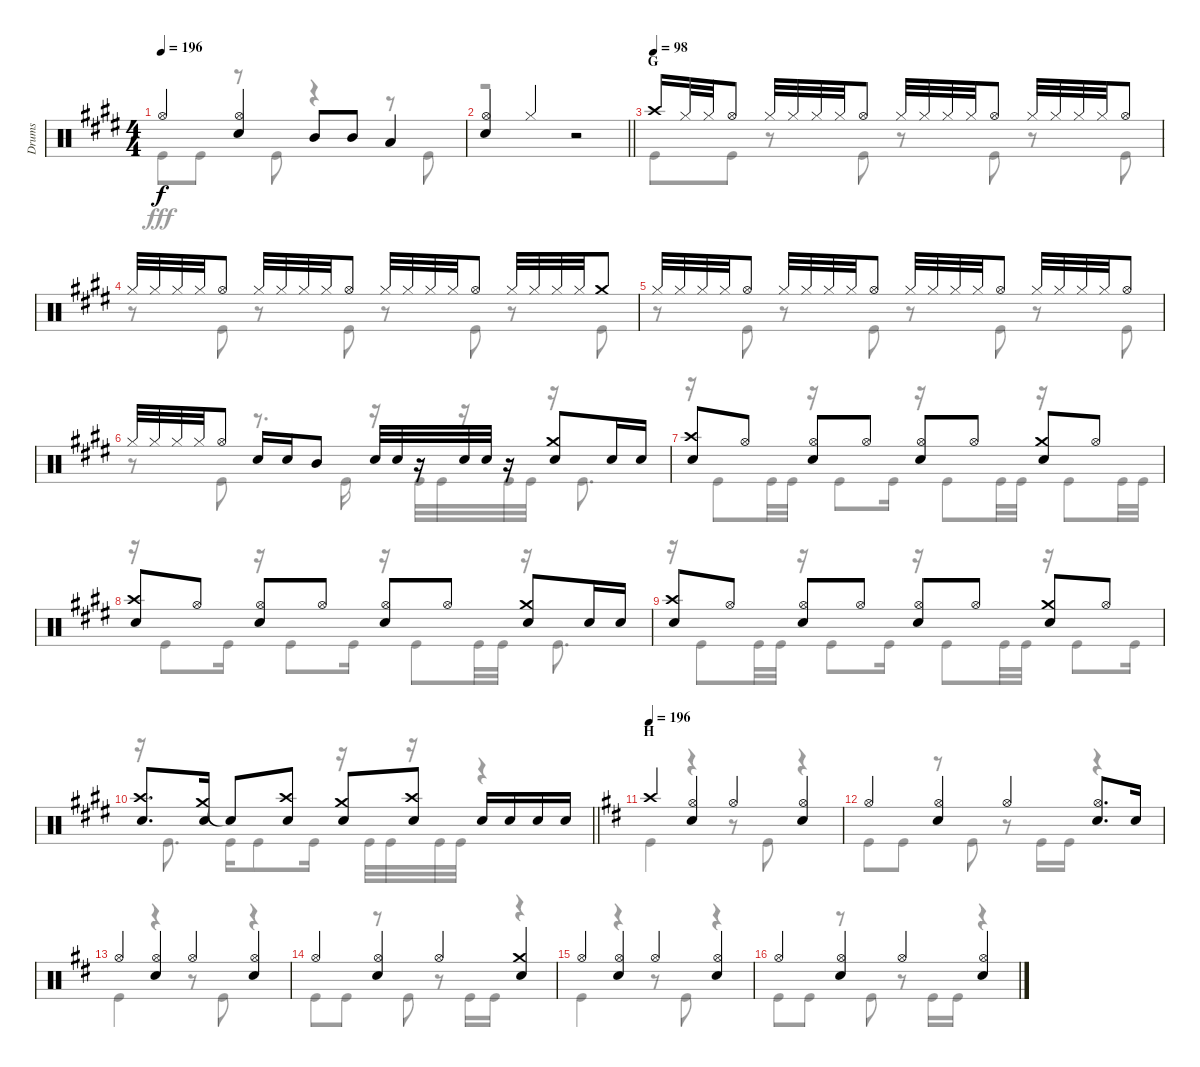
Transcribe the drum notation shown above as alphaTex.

\track ("Drums" "Drums") {instrument percussion}
\staff {score}
\articulation defaults
\voice
\ts (4 4)
\tempo 196
\clef neutral
\ks e "Hi-Hat (open)".4{dy f}
("Hi-Hat (open)" "Snare (hit) 2").4 "Mid Tom (hit)".8 "Mid Tom (hit)".8 "Low Tom (hit)".4 |
\barLineRight lightlight
("Hi-Hat (open)" "Snare (hit) 2").4 "Hi-Hat (closed)".4 r.2 |
\section ("" "G")
\tempo (98)
"Crash high (hit)".16 "Hi-Hat (closed)".32 "Hi-Hat (closed)".32 "Hi-Hat (open)".8 "Hi-Hat (closed)".32 "Hi-Hat (closed)".32 "Hi-Hat (closed)".32 "Hi-Hat (closed)".32 "Hi-Hat (open)".8 "Hi-Hat (closed)".32 "Hi-Hat (closed)".32 "Hi-Hat (closed)".32 "Hi-Hat (closed)".32 "Hi-Hat (open)".8 "Hi-Hat (closed)".32 "Hi-Hat (closed)".32 "Hi-Hat (closed)".32 "Hi-Hat (closed)".32 "Hi-Hat (open)".8 |
"Hi-Hat (closed)".32 "Hi-Hat (closed)".32 "Hi-Hat (closed)".32 "Hi-Hat (closed)".32 "Hi-Hat (open)".8 "Hi-Hat (closed)".32 "Hi-Hat (closed)".32 "Hi-Hat (closed)".32 "Hi-Hat (closed)".32 "Hi-Hat (open)".8 "Hi-Hat (closed)".32 "Hi-Hat (closed)".32 "Hi-Hat (closed)".32 "Hi-Hat (closed)".32 "Hi-Hat (open)".8 "Hi-Hat (closed)".32 "Hi-Hat (closed)".32 "Hi-Hat (closed)".32 "Hi-Hat (closed)".32 "Crash medium (hit)".8 |
"Hi-Hat (closed)".32 "Hi-Hat (closed)".32 "Hi-Hat (closed)".32 "Hi-Hat (closed)".32 "Hi-Hat (open)".8 "Hi-Hat (closed)".32 "Hi-Hat (closed)".32 "Hi-Hat (closed)".32 "Hi-Hat (closed)".32 "Hi-Hat (open)".8 "Hi-Hat (closed)".32 "Hi-Hat (closed)".32 "Hi-Hat (closed)".32 "Hi-Hat (closed)".32 "Hi-Hat (open)".8 "Hi-Hat (closed)".32 "Hi-Hat (closed)".32 "Hi-Hat (closed)".32 "Hi-Hat (closed)".32 "Hi-Hat (open)".8 |
"Hi-Hat (closed)".32 "Hi-Hat (closed)".32 "Hi-Hat (closed)".32 "Hi-Hat (closed)".32 "Hi-Hat (open)".8 "Snare (hit) 2".16 "Snare (hit) 2".16 "Mid Tom (hit)".8 "Snare (hit) 2".32 "Snare (hit) 2".32 r.16 "Snare (hit) 2".32 "Snare (hit) 2".32 r.16 ("Crash medium (hit)" "Snare (hit) 2").8 "Snare (hit) 2".16 "Snare (hit) 2".16 |
("Crash high (hit)" "Snare (hit) 2").8 "Hi-Hat (open)".8 ("Hi-Hat (open)" "Snare (hit) 2").8 "Hi-Hat (open)".8 ("Hi-Hat (open)" "Snare (hit) 2").8 "Hi-Hat (open)".8 ("Crash medium (hit)" "Snare (hit) 2").8 "Hi-Hat (open)".8 |
("Crash high (hit)" "Snare (hit) 2").8 "Hi-Hat (open)".8 ("Hi-Hat (open)" "Snare (hit) 2").8 "Hi-Hat (open)".8 ("Hi-Hat (open)" "Snare (hit) 2").8 "Hi-Hat (open)".8 ("Crash medium (hit)" "Snare (hit) 2").8 "Snare (hit) 2".16 "Snare (hit) 2".16 |
("Crash high (hit)" "Snare (hit) 2").8 "Hi-Hat (open)".8 ("Hi-Hat (open)" "Snare (hit) 2").8 "Hi-Hat (open)".8 ("Hi-Hat (open)" "Snare (hit) 2").8 "Hi-Hat (open)".8 ("Crash medium (hit)" "Snare (hit) 2").8 "Hi-Hat (open)".8 |
\barLineRight lightlight
("Crash high (hit)" "Snare (hit) 2").8{d} ("Crash medium (hit)" "Snare (hit) 2").16 "Snare (hit)"{t}.8 ("Crash high (hit)" "Snare (hit) 2").8 ("Crash medium (hit)" "Snare (hit) 2").8 ("Crash high (hit)" "Snare (hit) 2").8 "Snare (hit) 2".16 "Snare (hit) 2".16 "Snare (hit) 2".16 "Snare (hit) 2".16 |
\section ("" "H")
\tempo 196
\ks d "Crash high (hit)".4
("Hi-Hat (open)" "Snare (hit) 2").4 "Hi-Hat (open)".4 ("Hi-Hat (open)" "Snare (hit) 2").4 |
"Hi-Hat (open)".4 ("Hi-Hat (open)" "Snare (hit) 2").4 "Hi-Hat (open)".4 ("Hi-Hat (open)" "Snare (hit) 2").8{d} "Snare (hit) 2".16 |
"Hi-Hat (open)".4 ("Hi-Hat (open)" "Snare (hit) 2").4 "Hi-Hat (open)".4 ("Hi-Hat (open)" "Snare (hit) 2").4 |
"Hi-Hat (open)".4 ("Hi-Hat (open)" "Snare (hit) 2").4 "Hi-Hat (open)".4 ("Crash medium (hit)" "Snare (hit) 2").4 |
"Hi-Hat (open)".4 ("Hi-Hat (open)" "Snare (hit) 2").4 "Hi-Hat (open)".4 ("Hi-Hat (open)" "Snare (hit) 2").4 |
"Hi-Hat (open)".4 ("Hi-Hat (open)" "Snare (hit) 2").4 "Hi-Hat (open)".4 ("Hi-Hat (open)" "Snare (hit) 2").4
\voice
\clef neutral
\ottava regular
\simile none
\ks e "Kick (hit)".8{dy fff} "Kick (hit)".8
r.8 "Kick (hit)".8 r.4 r.8 "Kick (hit)".8 |
\barLineRight lightlight
r.1 |
"Kick (hit)".8 "Kick (hit)".8 r.8 "Kick (hit)".8 r.8 "Kick (hit)".8 r.8 "Kick (hit)".8 |
r.8 "Kick (hit)".8 r.8 "Kick (hit)".8 r.8 "Kick (hit)".8 r.8 "Kick (hit)".8 |
r.8 "Kick (hit)".8 r.8 "Kick (hit)".8 r.8 "Kick (hit)".8 r.8 "Kick (hit)".8 |
r.8 "Kick (hit)".8 r.8{d} "Kick (hit)".16 r.16 "Kick (hit)".32 "Kick (hit)".32 r.16 "Kick (hit)".32 "Kick (hit)".32 r.16 "Kick (hit)".8{d} |
r.16 "Kick (hit)".8 "Kick (hit)".32 "Kick (hit)".32 r.16 "Kick (hit)".8 "Kick (hit)".16 r.16 "Kick (hit)".8 "Kick (hit)".32 "Kick (hit)".32 r.16 "Kick (hit)".8 "Kick (hit)".32 "Kick (hit)".32 |
r.16 "Kick (hit)".8 "Kick (hit)".16 r.16 "Kick (hit)".8 "Kick (hit)".16 r.16 "Kick (hit)".8 "Kick (hit)".32 "Kick (hit)".32 r.16 "Kick (hit)".8{d} |
r.16 "Kick (hit)".8 "Kick (hit)".32 "Kick (hit)".32 r.16 "Kick (hit)".8 "Kick (hit)".16 r.16 "Kick (hit)".8 "Kick (hit)".32 "Kick (hit)".32 r.16 "Kick (hit)".8 "Kick (hit)".16 |
\barLineRight lightlight
r.16 "Kick (hit)".8{d} "Kick (hit)".16 "Kick (hit)".8 "Kick (hit)".16 r.16 "Kick (hit)".32 "Kick (hit)".32 r.16 "Kick (hit)".32 "Kick (hit)".32 r.4 |
\ks d "Kick (hit)".4
r.4 r.8 "Kick (hit)".8 r.4 |
"Kick (hit)".8 "Kick (hit)".8 r.8 "Kick (hit)".8 r.8 "Kick (hit)".16 "Kick (hit)".16 r.4 |
"Kick (hit)".4 r.4 r.8 "Kick (hit)".8 r.4 |
"Kick (hit)".8 "Kick (hit)".8 r.8 "Kick (hit)".8 r.8 "Kick (hit)".16 "Kick (hit)".16 r.4 |
"Kick (hit)".4 r.4 r.8 "Kick (hit)".8 r.4 |
"Kick (hit)".8 "Kick (hit)".8 r.8 "Kick (hit)".8 r.8 "Kick (hit)".16 "Kick (hit)".16 r.4
